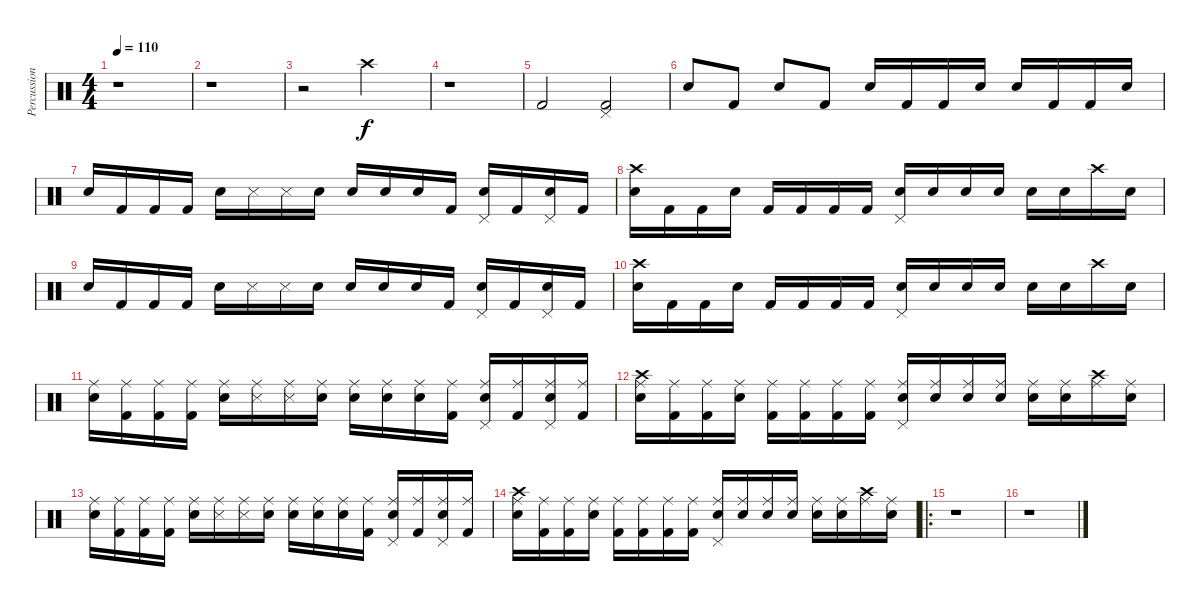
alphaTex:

\track ("Percussions" "Percussion") {instrument percussion}
\staff {score}
\articulation defaults
\ts (4 4)
\tempo 110
\clef neutral
\ks c
r.1{dy f} |
r.1 |
r.2 "Crash high (hit)".2 |
r.1 |
"Kick (hit) 2".2 ("Pedal Hi-Hat (hit)" "Kick (hit) 2").2 |
"Snare (hit) 2".8 "Kick (hit) 2".8 "Snare (hit) 2".8 "Kick (hit) 2".8 "Snare (hit) 2".16 "Kick (hit) 2".16 "Kick (hit) 2".16 "Snare (hit) 2".16 "Electric Snare (hit)".16 "Kick (hit) 2".16 "Kick (hit) 2".16 "Snare (hit) 2".16 |
"Electric Snare (hit)".16 "Kick (hit) 2".16 "Kick (hit) 2".16 "Kick (hit) 2".16 "Electric Snare (hit)".16 "Snare (side stick) 3".16 "Snare (side stick) 3".16 "Snare (hit) 2".16 "Electric Snare (hit)".16 "Snare (hit) 2".16 "Electric Snare (hit)".16 "Kick (hit) 2".16 ("Pedal Hi-Hat (hit)" "Snare (hit) 2").16 "Kick (hit) 2".16 ("Pedal Hi-Hat (hit)" "Snare (hit) 2").16 "Kick (hit) 2".16 |
("Crash high (hit)" "Electric Snare (hit)").16 "Kick (hit) 2".16 "Kick (hit) 2".16 "Electric Snare (hit)".16 "Kick (hit) 2".16 "Kick (hit) 2".16 "Kick (hit) 2".16 "Kick (hit) 2".16 ("Pedal Hi-Hat (hit)" "Electric Snare (hit)").16 "Snare (hit) 2".16 "Snare (hit) 2".16 "Electric Snare (hit)".16 "Snare (hit) 2".16 "Snare (hit) 2".16 "Crash high (hit)".16 "Electric Snare (hit)".16 |
"Electric Snare (hit)".16 "Kick (hit) 2".16 "Kick (hit) 2".16 "Kick (hit) 2".16 "Electric Snare (hit)".16 "Snare (side stick) 3".16 "Snare (side stick) 3".16 "Snare (hit) 2".16 "Electric Snare (hit)".16 "Snare (hit) 2".16 "Electric Snare (hit)".16 "Kick (hit) 2".16 ("Pedal Hi-Hat (hit)" "Snare (hit) 2").16 "Kick (hit) 2".16 ("Pedal Hi-Hat (hit)" "Snare (hit) 2").16 "Kick (hit) 2".16 |
("Crash high (hit)" "Electric Snare (hit)").16 "Kick (hit) 2".16 "Kick (hit) 2".16 "Electric Snare (hit)".16 "Kick (hit) 2".16 "Kick (hit) 2".16 "Kick (hit) 2".16 "Kick (hit) 2".16 ("Pedal Hi-Hat (hit)" "Electric Snare (hit)").16 "Snare (hit) 2".16 "Snare (hit) 2".16 "Electric Snare (hit)".16 "Snare (hit) 2".16 "Snare (hit) 2".16 "Crash high (hit)".16 "Electric Snare (hit)".16 |
("Ride (middle)" "Electric Snare (hit)").16 ("Ride (middle)" "Kick (hit) 2").16 ("Ride (middle)" "Kick (hit) 2").16 ("Ride (middle)" "Kick (hit) 2").16 ("Ride (middle)" "Electric Snare (hit)").16 ("Ride (middle)" "Snare (side stick) 3").16 ("Ride (middle)" "Snare (side stick) 3").16 ("Ride (middle)" "Snare (hit) 2").16 ("Ride (middle)" "Electric Snare (hit)").16 ("Ride (middle)" "Snare (hit) 2").16 ("Ride (middle)" "Electric Snare (hit)").16 ("Ride (middle)" "Kick (hit) 2").16 ("Ride (middle)" "Pedal Hi-Hat (hit)" "Snare (hit) 2").16 ("Ride (middle)" "Kick (hit) 2").16 ("Ride (middle)" "Pedal Hi-Hat (hit)" "Snare (hit) 2").16 ("Ride (middle)" "Kick (hit) 2").16 |
("Ride (middle)" "Crash high (hit)" "Electric Snare (hit)").16 ("Ride (middle)" "Kick (hit) 2").16 ("Ride (middle)" "Kick (hit) 2").16 ("Ride (middle)" "Electric Snare (hit)").16 ("Ride (middle)" "Kick (hit) 2").16 ("Ride (middle)" "Kick (hit) 2").16 ("Ride (middle)" "Kick (hit) 2").16 ("Ride (middle)" "Kick (hit) 2").16 ("Ride (middle)" "Pedal Hi-Hat (hit)" "Electric Snare (hit)").16 ("Ride (middle)" "Snare (hit) 2").16 ("Ride (middle)" "Snare (hit) 2").16 ("Ride (middle)" "Electric Snare (hit)").16 ("Ride (middle)" "Snare (hit) 2").16 ("Ride (middle)" "Snare (hit) 2").16 ("Ride (middle)" "Crash high (hit)").16 ("Ride (middle)" "Electric Snare (hit)").16 |
("Ride (middle)" "Electric Snare (hit)").16 ("Ride (middle)" "Kick (hit) 2").16 ("Ride (middle)" "Kick (hit) 2").16 ("Ride (middle)" "Kick (hit) 2").16 ("Ride (middle)" "Electric Snare (hit)").16 ("Ride (middle)" "Snare (side stick) 3").16 ("Ride (middle)" "Snare (side stick) 3").16 ("Ride (middle)" "Snare (hit) 2").16 ("Ride (middle)" "Electric Snare (hit)").16 ("Ride (middle)" "Snare (hit) 2").16 ("Ride (middle)" "Electric Snare (hit)").16 ("Ride (middle)" "Kick (hit) 2").16 ("Ride (middle)" "Pedal Hi-Hat (hit)" "Snare (hit) 2").16 ("Ride (middle)" "Kick (hit) 2").16 ("Ride (middle)" "Pedal Hi-Hat (hit)" "Snare (hit) 2").16 ("Ride (middle)" "Kick (hit) 2").16 |
("Ride (middle)" "Crash high (hit)" "Electric Snare (hit)").16 ("Ride (middle)" "Kick (hit) 2").16 ("Ride (middle)" "Kick (hit) 2").16 ("Ride (middle)" "Electric Snare (hit)").16 ("Ride (middle)" "Kick (hit) 2").16 ("Ride (middle)" "Kick (hit) 2").16 ("Ride (middle)" "Kick (hit) 2").16 ("Ride (middle)" "Kick (hit) 2").16 ("Ride (middle)" "Pedal Hi-Hat (hit)" "Electric Snare (hit)").16 ("Ride (middle)" "Snare (hit) 2").16 ("Ride (middle)" "Snare (hit) 2").16 ("Ride (middle)" "Electric Snare (hit)").16 ("Ride (middle)" "Snare (hit) 2").16 ("Ride (middle)" "Snare (hit) 2").16 ("Ride (middle)" "Crash high (hit)").16 ("Ride (middle)" "Electric Snare (hit)").16 |
\ro
r.1 |
r.1
